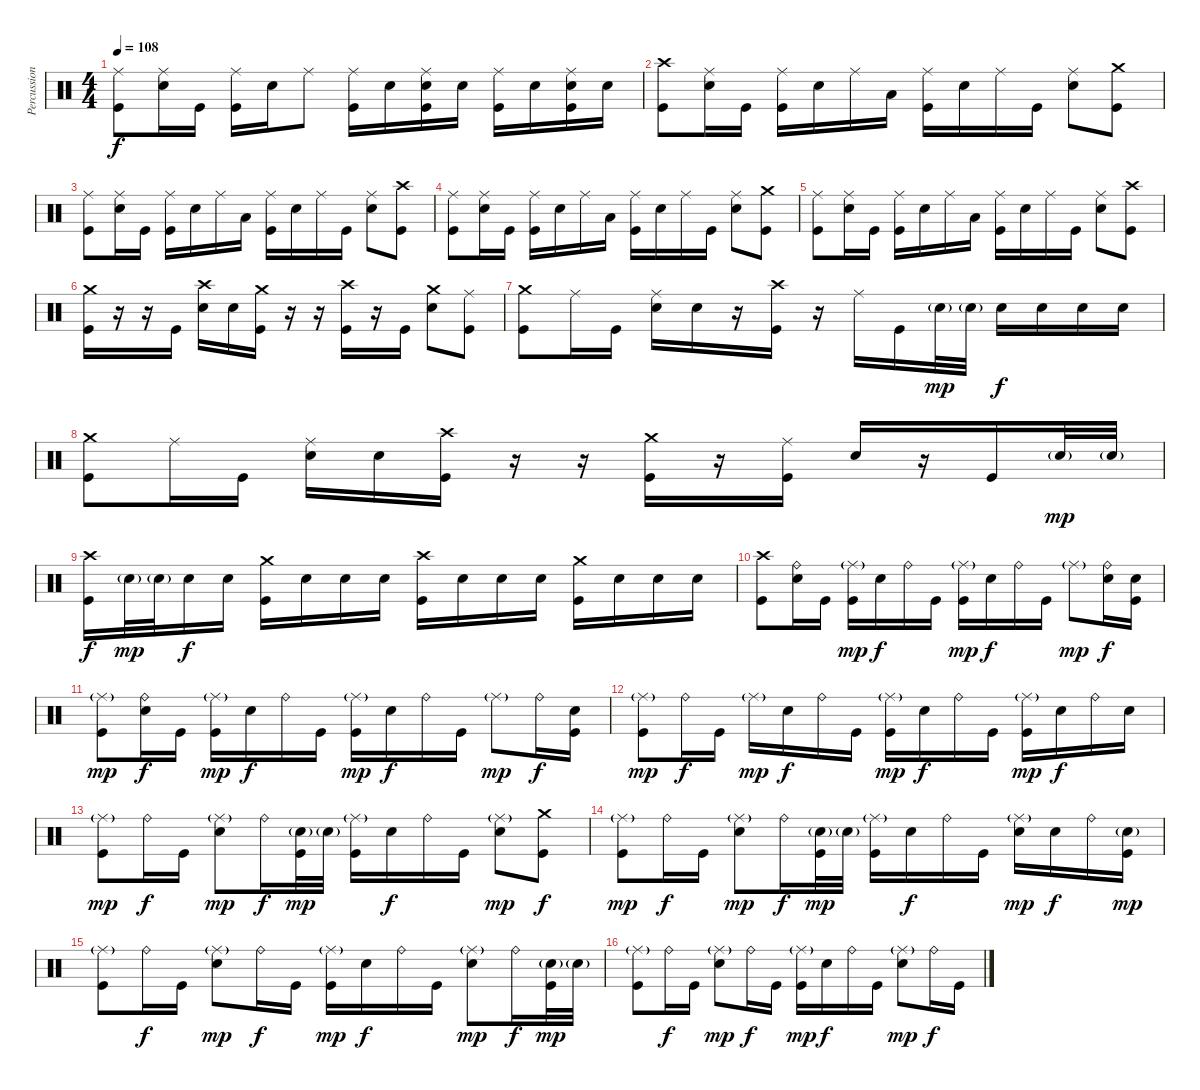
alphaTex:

\track ("Percussion" "Percussion") {instrument percussion}
\staff {score}
\articulation defaults
\ts (4 4)
\tempo 108
\clef neutral
\ks c
("Ride (middle)" "Kick (hit)").8{dy f} ("Ride (middle)" "Electric Snare (hit)").16 "Kick (hit)".16 ("Ride (middle)" "Kick (hit)").16 "Electric Snare (hit)".16 "Ride (middle)".8 ("Ride (middle)" "Kick (hit)").16 "Electric Snare (hit)".16 ("Ride (middle)" "Electric Snare (hit)" "Kick (hit)").16 "Electric Snare (hit)".16 ("Ride (middle)" "Kick (hit)").16 "Electric Snare (hit)".16 ("Ride (middle)" "Electric Snare (hit)" "Kick (hit)").16 "Electric Snare (hit)".16 |
("Crash high (hit)" "Kick (hit)").8 ("Ride (middle)" "Electric Snare (hit)").16 "Kick (hit)".16 ("Ride (middle)" "Kick (hit)").16 "Electric Snare (hit)".16 "Ride (middle)".16 "Low Tom (hit)".16 ("Ride (middle)" "Kick (hit)").16 "Electric Snare (hit)".16 "Ride (middle)".16 "Kick (hit)".16 ("Ride (middle)" "Electric Snare (hit)").8 ("Crash medium (hit)" "Kick (hit)").8 |
("Ride (middle)" "Kick (hit)").8 ("Ride (middle)" "Electric Snare (hit)").16 "Kick (hit)".16 ("Ride (middle)" "Kick (hit)").16 "Electric Snare (hit)".16 "Ride (middle)".16 "Low Tom (hit)".16 ("Ride (middle)" "Kick (hit)").16 "Electric Snare (hit)".16 "Ride (middle)".16 "Kick (hit)".16 ("Ride (middle)" "Electric Snare (hit)").8 ("Crash high (hit)" "Kick (hit)").8 |
("Ride (middle)" "Kick (hit)").8 ("Ride (middle)" "Electric Snare (hit)").16 "Kick (hit)".16 ("Ride (middle)" "Kick (hit)").16 "Electric Snare (hit)".16 "Ride (middle)".16 "Low Tom (hit)".16 ("Ride (middle)" "Kick (hit)").16 "Electric Snare (hit)".16 "Ride (middle)".16 "Kick (hit)".16 ("Ride (middle)" "Electric Snare (hit)").8 ("Crash medium (hit)" "Kick (hit)").8 |
("Ride (middle)" "Kick (hit)").8 ("Ride (middle)" "Electric Snare (hit)").16 "Kick (hit)".16 ("Ride (middle)" "Kick (hit)").16 "Electric Snare (hit)".16 "Ride (middle)".16 "Low Tom (hit)".16 ("Ride (middle)" "Kick (hit)").16 "Electric Snare (hit)".16 "Ride (middle)".16 "Kick (hit)".16 ("Ride (middle)" "Electric Snare (hit)").8 ("Crash high (hit)" "Kick (hit)").8 |
("Crash medium (hit)" "Kick (hit)").16 r.16 r.16 "Kick (hit)".16 ("Crash high (hit)" "Electric Snare (hit)").16 "Electric Snare (hit)".16 ("Crash medium (hit)" "Kick (hit)").16 r.16 r.16 ("Crash high (hit)" "Kick (hit)").16 r.16 "Kick (hit)".16 ("Crash medium (hit)" "Electric Snare (hit)").8 ("Ride (middle)" "Kick (hit)").8 |
("Crash medium (hit)" "Kick (hit)").8 "Ride (middle)".16 "Kick (hit)".16 ("Ride (middle)" "Electric Snare (hit)").16 "Electric Snare (hit)".16 r.16 ("Crash high (hit)" "Kick (hit)").16 r.16 "Ride (middle)".16 "Kick (hit)".16 "Electric Snare (hit)"{g}.32{dy mp} "Electric Snare (hit)"{g}.32 "Electric Snare (hit)".16{dy f} "Electric Snare (hit)".16 "Electric Snare (hit)".16 "Electric Snare (hit)".16 |
("Crash medium (hit)" "Kick (hit)").8 "Ride (middle)".16 "Kick (hit)".16 ("Ride (middle)" "Electric Snare (hit)").16 "Electric Snare (hit)".16 ("Crash high (hit)" "Kick (hit)").16 r.16 r.16 ("Crash medium (hit)" "Kick (hit)").16 r.16 ("Ride (middle)" "Kick (hit)").16 "Electric Snare (hit)".16 r.16 "Kick (hit)".16 "Electric Snare (hit)"{g}.32{dy mp} "Electric Snare (hit)"{g}.32 |
("Crash high (hit)" "Kick (hit)").16{dy f} "Electric Snare (hit)"{g}.32{dy mp} "Electric Snare (hit)"{g}.32 "Electric Snare (hit)".16{dy f} "Electric Snare (hit)".16 ("Crash medium (hit)" "Kick (hit)").16 "Electric Snare (hit)".16 "Electric Snare (hit)".16 "Electric Snare (hit)".16 ("Crash high (hit)" "Kick (hit)").16 "Electric Snare (hit)".16 "Electric Snare (hit)".16 "Electric Snare (hit)".16 ("Crash medium (hit)" "Kick (hit)").16 "Electric Snare (hit)".16 "Electric Snare (hit)".16 "Electric Snare (hit)".16 |
("Crash high (hit)" "Kick (hit)").8 ("Ride (bell)" "Electric Snare (hit)").16 "Kick (hit)".16 ("Ride (middle)"{g} "Kick (hit)").16{dy mp} "Electric Snare (hit)".16{dy f} "Ride (bell)".16 "Kick (hit)".16 ("Ride (middle)"{g} "Kick (hit)").16{dy mp} "Electric Snare (hit)".16{dy f} "Ride (bell)".16 "Kick (hit)".16 "Ride (middle)"{g}.8{dy mp} ("Ride (bell)" "Electric Snare (hit)").16{dy f} ("Electric Snare (hit)" "Kick (hit)").16 |
("Ride (middle)"{g} "Kick (hit)").8{dy mp} ("Ride (bell)" "Electric Snare (hit)").16{dy f} "Kick (hit)".16 ("Ride (middle)"{g} "Kick (hit)").16{dy mp} "Electric Snare (hit)".16{dy f} "Ride (bell)".16 "Kick (hit)".16 ("Ride (middle)"{g} "Kick (hit)").16{dy mp} "Electric Snare (hit)".16{dy f} "Ride (bell)".16 "Kick (hit)".16 "Ride (middle)"{g}.8{dy mp} "Ride (bell)".16{dy f} ("Electric Snare (hit)" "Kick (hit)").16 |
("Ride (middle)"{g} "Kick (hit)").8{dy mp} "Ride (bell)".16{dy f} "Kick (hit)".16 "Ride (middle)"{g}.16{dy mp} "Electric Snare (hit)".16{dy f} "Ride (bell)".16 "Kick (hit)".16 ("Ride (middle)"{g} "Kick (hit)").16{dy mp} "Electric Snare (hit)".16{dy f} "Ride (bell)".16 "Kick (hit)".16 ("Ride (middle)"{g} "Kick (hit)").16{dy mp} "Electric Snare (hit)".16{dy f} "Ride (bell)".16 "Electric Snare (hit)".16 |
("Ride (middle)"{g} "Kick (hit)").8{dy mp} "Ride (bell)".16{dy f} "Kick (hit)".16 ("Ride (middle)"{g} "Electric Snare (hit)").8{dy mp} "Ride (bell)".16{dy f} ("Electric Snare (hit)"{g} "Kick (hit)").32{dy mp} "Electric Snare (hit)"{g}.32 ("Ride (middle)"{g} "Kick (hit)").16 "Electric Snare (hit)".16{dy f} "Ride (bell)".16 "Kick (hit)".16 ("Ride (middle)"{g} "Electric Snare (hit)").8{dy mp} ("Crash medium (hit)" "Kick (hit)").8{dy f} |
("Ride (middle)"{g} "Kick (hit)").8{dy mp} "Ride (bell)".16{dy f} "Kick (hit)".16 ("Ride (middle)"{g} "Electric Snare (hit)").8{dy mp} "Ride (bell)".16{dy f} ("Electric Snare (hit)"{g} "Kick (hit)").32{dy mp} "Electric Snare (hit)"{g}.32 ("Ride (middle)"{g} "Kick (hit)").16 "Electric Snare (hit)".16{dy f} "Ride (bell)".16 "Kick (hit)".16 ("Ride (middle)"{g} "Electric Snare (hit)").16{dy mp} "Electric Snare (hit)".16{dy f} "Ride (bell)".16 ("Electric Snare (hit)"{g} "Kick (hit)").16{dy mp} |
("Ride (middle)"{g} "Kick (hit)").8 "Ride (bell)".16{dy f} "Kick (hit)".16 ("Ride (middle)"{g} "Electric Snare (hit)").8{dy mp} "Ride (bell)".16{dy f} "Kick (hit)".16 ("Ride (middle)"{g} "Kick (hit)").16{dy mp} "Electric Snare (hit)".16{dy f} "Ride (bell)".16 "Kick (hit)".16 ("Ride (middle)"{g} "Electric Snare (hit)").8{dy mp} "Ride (bell)".16{dy f} ("Electric Snare (hit)"{g} "Kick (hit)").32{dy mp} "Electric Snare (hit)"{g}.32 |
("Ride (middle)"{g} "Kick (hit)").8 "Ride (bell)".16{dy f} "Kick (hit)".16 ("Ride (middle)"{g} "Electric Snare (hit)").8{dy mp} "Ride (bell)".16{dy f} "Kick (hit)".16 ("Ride (middle)"{g} "Kick (hit)").16{dy mp} "Electric Snare (hit)".16{dy f} "Ride (bell)".16 "Kick (hit)".16 ("Ride (middle)"{g} "Electric Snare (hit)").8{dy mp} "Ride (bell)".16{dy f} "Kick (hit)".16
